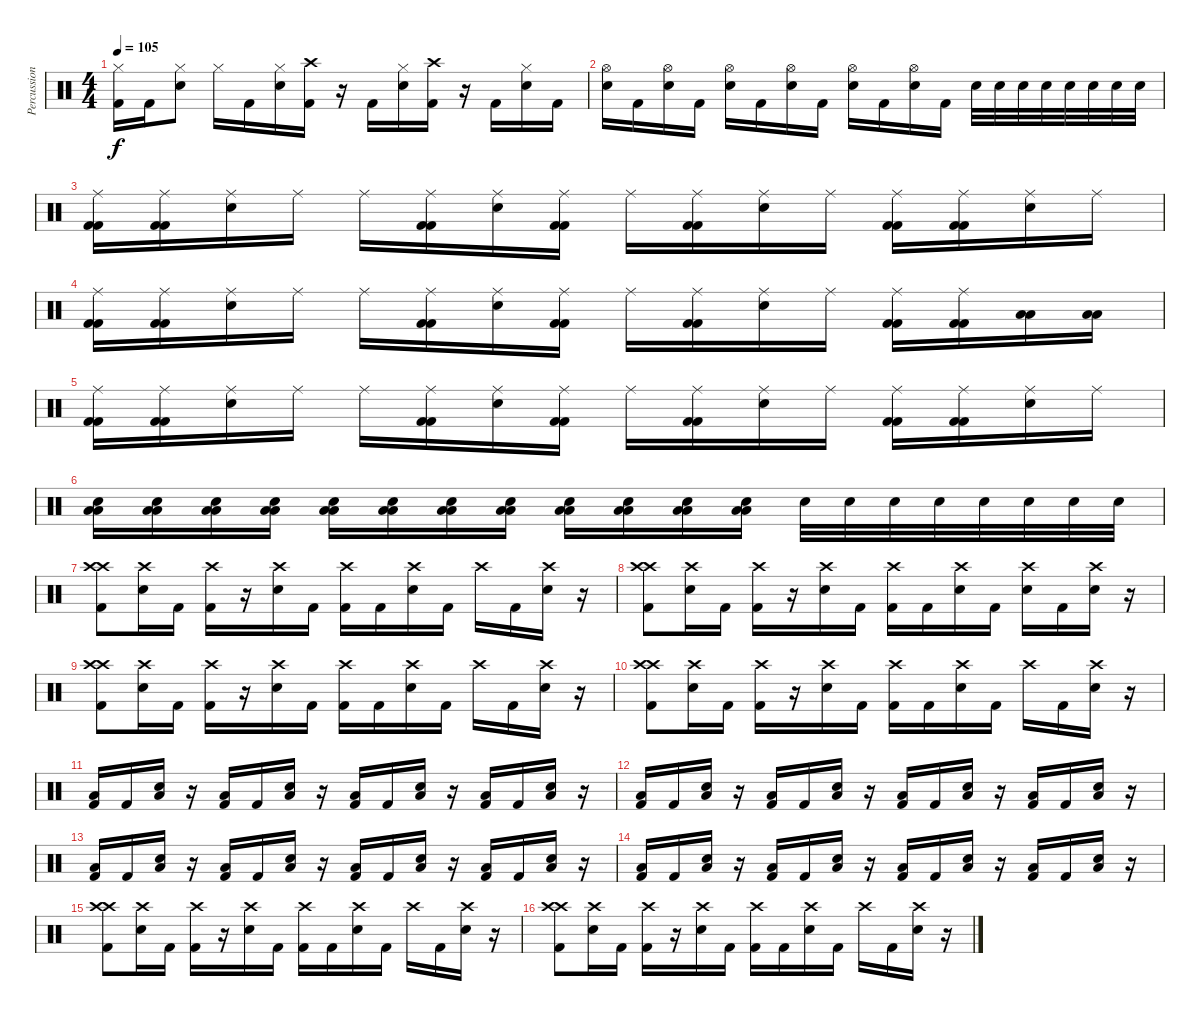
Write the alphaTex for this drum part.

\track ("Percussion" "Percussion") {instrument percussion}
\staff {score}
\articulation defaults
\ts (4 4)
\tempo 105
\clef neutral
\ks c
("Hi-Hat (closed)" "Kick (hit) 2").16{dy f} "Kick (hit) 2".16 ("Hi-Hat (closed)" "Snare (hit) 2").8 "Hi-Hat (closed)".16 "Kick (hit) 2".16 ("Hi-Hat (closed)" "Snare (hit) 2").16 ("Crash high (hit)" "Kick (hit) 2").16 r.16 "Kick (hit) 2".16 ("Hi-Hat (closed)" "Snare (hit) 2").16 ("Crash high (hit)" "Kick (hit) 2").16 r.16 "Kick (hit) 2".16 ("Hi-Hat (closed)" "Snare (hit) 2").16 "Kick (hit) 2".16 |
("Hi-Hat (open)" "Snare (hit) 2").16 "Kick (hit) 2".16 ("Hi-Hat (open)" "Snare (hit) 2").16 "Kick (hit) 2".16 ("Hi-Hat (open)" "Snare (hit) 2").16 "Kick (hit) 2".16 ("Hi-Hat (open)" "Snare (hit) 2").16 "Kick (hit) 2".16 ("Hi-Hat (open)" "Snare (hit) 2").16 "Kick (hit) 2".16 ("Hi-Hat (open)" "Snare (hit) 2").16 "Kick (hit) 2".16 "Snare (hit) 2".32 "Snare (hit) 2".32 "Snare (hit) 2".32 "Snare (hit) 2".32 "Snare (hit) 2".32 "Snare (hit) 2".32 "Snare (hit) 2".32 "Snare (hit) 2".32 |
("Ride (middle)" "Kick (hit) 2" "Kick (hit) 2").16 ("Ride (middle)" "Kick (hit) 2" "Kick (hit) 2").16 ("Ride (middle)" "Snare (hit) 2").16 "Ride (middle)".16 "Ride (middle)".16 ("Ride (middle)" "Kick (hit) 2" "Kick (hit) 2").16 ("Ride (middle)" "Snare (hit) 2").16 ("Ride (middle)" "Kick (hit) 2" "Kick (hit) 2").16 "Ride (middle)".16 ("Ride (middle)" "Kick (hit) 2" "Kick (hit) 2").16 ("Ride (middle)" "Snare (hit) 2").16 "Ride (middle)".16 ("Ride (middle)" "Kick (hit) 2" "Kick (hit) 2").16 ("Ride (middle)" "Kick (hit) 2" "Kick (hit) 2").16 ("Ride (middle)" "Snare (hit) 2").16 "Ride (middle)".16 |
("Ride (middle)" "Kick (hit) 2" "Kick (hit) 2").16 ("Ride (middle)" "Kick (hit) 2" "Kick (hit) 2").16 ("Ride (middle)" "Snare (hit) 2").16 "Ride (middle)".16 "Ride (middle)".16 ("Ride (middle)" "Kick (hit) 2" "Kick (hit) 2").16 ("Ride (middle)" "Snare (hit) 2").16 ("Ride (middle)" "Kick (hit) 2" "Kick (hit) 2").16 "Ride (middle)".16 ("Ride (middle)" "Kick (hit) 2" "Kick (hit) 2").16 ("Ride (middle)" "Snare (hit) 2").16 "Ride (middle)".16 ("Ride (middle)" "Kick (hit) 2" "Kick (hit) 2").16 ("Ride (middle)" "Kick (hit) 2" "Kick (hit) 2").16 ("Low Tom (hit)" "Low Tom (hit)").16 ("Low Tom (hit)" "Low Tom (hit)").16 |
("Ride (middle)" "Kick (hit) 2" "Kick (hit) 2").16 ("Ride (middle)" "Kick (hit) 2" "Kick (hit) 2").16 ("Ride (middle)" "Snare (hit) 2").16 "Ride (middle)".16 "Ride (middle)".16 ("Ride (middle)" "Kick (hit) 2" "Kick (hit) 2").16 ("Ride (middle)" "Snare (hit) 2").16 ("Ride (middle)" "Kick (hit) 2" "Kick (hit) 2").16 "Ride (middle)".16 ("Ride (middle)" "Kick (hit) 2" "Kick (hit) 2").16 ("Ride (middle)" "Snare (hit) 2").16 "Ride (middle)".16 ("Ride (middle)" "Kick (hit) 2" "Kick (hit) 2").16 ("Ride (middle)" "Kick (hit) 2" "Kick (hit) 2").16 ("Ride (middle)" "Snare (hit) 2").16 "Ride (middle)".16 |
("Snare (hit) 2" "Low Floor Tom (hit)" "Low Floor Tom (hit)").16 ("Snare (hit) 2" "Low Floor Tom (hit)" "Low Floor Tom (hit)").16 ("Snare (hit) 2" "Low Floor Tom (hit)" "Low Floor Tom (hit)").16 ("Snare (hit) 2" "Low Floor Tom (hit)" "Low Floor Tom (hit)").16 ("Snare (hit) 2" "Low Floor Tom (hit)" "Low Floor Tom (hit)").16 ("Snare (hit) 2" "Low Floor Tom (hit)" "Low Floor Tom (hit)").16 ("Snare (hit) 2" "Low Floor Tom (hit)" "Low Floor Tom (hit)").16 ("Snare (hit) 2" "Low Floor Tom (hit)" "Low Floor Tom (hit)").16 ("Snare (hit) 2" "Low Floor Tom (hit)" "Low Floor Tom (hit)").16 ("Snare (hit) 2" "Low Floor Tom (hit)" "Low Floor Tom (hit)").16 ("Snare (hit) 2" "Low Floor Tom (hit)" "Low Floor Tom (hit)").16 ("Snare (hit) 2" "Low Floor Tom (hit)" "Low Floor Tom (hit)").16 "Snare (hit) 2".32 "Snare (hit) 2".32 "Snare (hit) 2".32 "Snare (hit) 2".32 "Snare (hit) 2".32 "Snare (hit) 2".32 "Snare (hit) 2".32 "Snare (hit) 2".32 |
("Crash high (hit)" "Crash high (hit)" "Kick (hit) 2").8 ("Crash high (hit)" "Snare (hit) 2").16 "Kick (hit) 2".16 ("Crash high (hit)" "Kick (hit) 2").16 r.16 ("Crash high (hit)" "Snare (hit) 2").16 "Kick (hit) 2".16 ("Crash high (hit)" "Kick (hit) 2").16 "Kick (hit) 2".16 ("Crash high (hit)" "Snare (hit) 2").16 "Kick (hit) 2".16 "Crash high (hit)".16 "Kick (hit) 2".16 ("Crash high (hit)" "Snare (hit) 2").16 r.16 |
("Crash high (hit)" "Crash high (hit)" "Kick (hit) 2").8 ("Crash high (hit)" "Snare (hit) 2").16 "Kick (hit) 2".16 ("Crash high (hit)" "Kick (hit) 2").16 r.16 ("Crash high (hit)" "Snare (hit) 2").16 "Kick (hit) 2".16 ("Crash high (hit)" "Kick (hit) 2").16 "Kick (hit) 2".16 ("Crash high (hit)" "Snare (hit) 2").16 "Kick (hit) 2".16 ("Crash high (hit)" "Snare (hit) 2").16 "Kick (hit) 2".16 ("Crash high (hit)" "Snare (hit) 2").16 r.16 |
("Crash high (hit)" "Crash high (hit)" "Kick (hit) 2").8 ("Crash high (hit)" "Snare (hit) 2").16 "Kick (hit) 2".16 ("Crash high (hit)" "Kick (hit) 2").16 r.16 ("Crash high (hit)" "Snare (hit) 2").16 "Kick (hit) 2".16 ("Crash high (hit)" "Kick (hit) 2").16 "Kick (hit) 2".16 ("Crash high (hit)" "Snare (hit) 2").16 "Kick (hit) 2".16 "Crash high (hit)".16 "Kick (hit) 2".16 ("Crash high (hit)" "Snare (hit) 2").16 r.16 |
("Crash high (hit)" "Crash high (hit)" "Kick (hit) 2").8 ("Crash high (hit)" "Snare (hit) 2").16 "Kick (hit) 2".16 ("Crash high (hit)" "Kick (hit) 2").16 r.16 ("Crash high (hit)" "Snare (hit) 2").16 "Kick (hit) 2".16 ("Crash high (hit)" "Kick (hit) 2").16 "Kick (hit) 2".16 ("Crash high (hit)" "Snare (hit) 2").16 "Kick (hit) 2".16 "Crash high (hit)".16 "Kick (hit) 2".16 ("Crash high (hit)" "Snare (hit) 2").16 r.16 |
("Low Floor Tom (hit)" "Kick (hit) 2").16 "Kick (hit) 2".16 ("Low Floor Tom (hit)" "Snare (hit) 2").16 r.16 ("Low Floor Tom (hit)" "Kick (hit) 2").16 "Kick (hit) 2".16 ("Low Floor Tom (hit)" "Snare (hit) 2").16 r.16 ("Low Floor Tom (hit)" "Kick (hit) 2").16 "Kick (hit) 2".16 ("Low Floor Tom (hit)" "Snare (hit) 2").16 r.16 ("Low Floor Tom (hit)" "Kick (hit) 2").16 "Kick (hit) 2".16 ("Low Floor Tom (hit)" "Snare (hit) 2").16 r.16 |
("Low Floor Tom (hit)" "Kick (hit) 2").16 "Kick (hit) 2".16 ("Low Floor Tom (hit)" "Snare (hit) 2").16 r.16 ("Low Floor Tom (hit)" "Kick (hit) 2").16 "Kick (hit) 2".16 ("Low Floor Tom (hit)" "Snare (hit) 2").16 r.16 ("Low Floor Tom (hit)" "Kick (hit) 2").16 "Kick (hit) 2".16 ("Low Floor Tom (hit)" "Snare (hit) 2").16 r.16 ("Low Floor Tom (hit)" "Kick (hit) 2").16 "Kick (hit) 2".16 ("Low Floor Tom (hit)" "Snare (hit) 2").16 r.16 |
("Low Floor Tom (hit)" "Kick (hit) 2").16 "Kick (hit) 2".16 ("Low Floor Tom (hit)" "Snare (hit) 2").16 r.16 ("Low Floor Tom (hit)" "Kick (hit) 2").16 "Kick (hit) 2".16 ("Low Floor Tom (hit)" "Snare (hit) 2").16 r.16 ("Low Floor Tom (hit)" "Kick (hit) 2").16 "Kick (hit) 2".16 ("Low Floor Tom (hit)" "Snare (hit) 2").16 r.16 ("Low Floor Tom (hit)" "Kick (hit) 2").16 "Kick (hit) 2".16 ("Low Floor Tom (hit)" "Snare (hit) 2").16 r.16 |
("Low Floor Tom (hit)" "Kick (hit) 2").16 "Kick (hit) 2".16 ("Low Floor Tom (hit)" "Snare (hit) 2").16 r.16 ("Low Floor Tom (hit)" "Kick (hit) 2").16 "Kick (hit) 2".16 ("Low Floor Tom (hit)" "Snare (hit) 2").16 r.16 ("Low Floor Tom (hit)" "Kick (hit) 2").16 "Kick (hit) 2".16 ("Low Floor Tom (hit)" "Snare (hit) 2").16 r.16 ("Low Floor Tom (hit)" "Kick (hit) 2").16 "Kick (hit) 2".16 ("Low Floor Tom (hit)" "Snare (hit) 2").16 r.16 |
("Crash high (hit)" "Crash high (hit)" "Kick (hit) 2").8 ("Crash high (hit)" "Snare (hit) 2").16 "Kick (hit) 2".16 ("Crash high (hit)" "Kick (hit) 2").16 r.16 ("Crash high (hit)" "Snare (hit) 2").16 "Kick (hit) 2".16 ("Crash high (hit)" "Kick (hit) 2").16 "Kick (hit) 2".16 ("Crash high (hit)" "Snare (hit) 2").16 "Kick (hit) 2".16 "Crash high (hit)".16 "Kick (hit) 2".16 ("Crash high (hit)" "Snare (hit) 2").16 r.16 |
("Crash high (hit)" "Crash high (hit)" "Kick (hit) 2").8 ("Crash high (hit)" "Snare (hit) 2").16 "Kick (hit) 2".16 ("Crash high (hit)" "Kick (hit) 2").16 r.16 ("Crash high (hit)" "Snare (hit) 2").16 "Kick (hit) 2".16 ("Crash high (hit)" "Kick (hit) 2").16 "Kick (hit) 2".16 ("Crash high (hit)" "Snare (hit) 2").16 "Kick (hit) 2".16 "Crash high (hit)".16 "Kick (hit) 2".16 ("Crash high (hit)" "Snare (hit) 2").16 r.16
